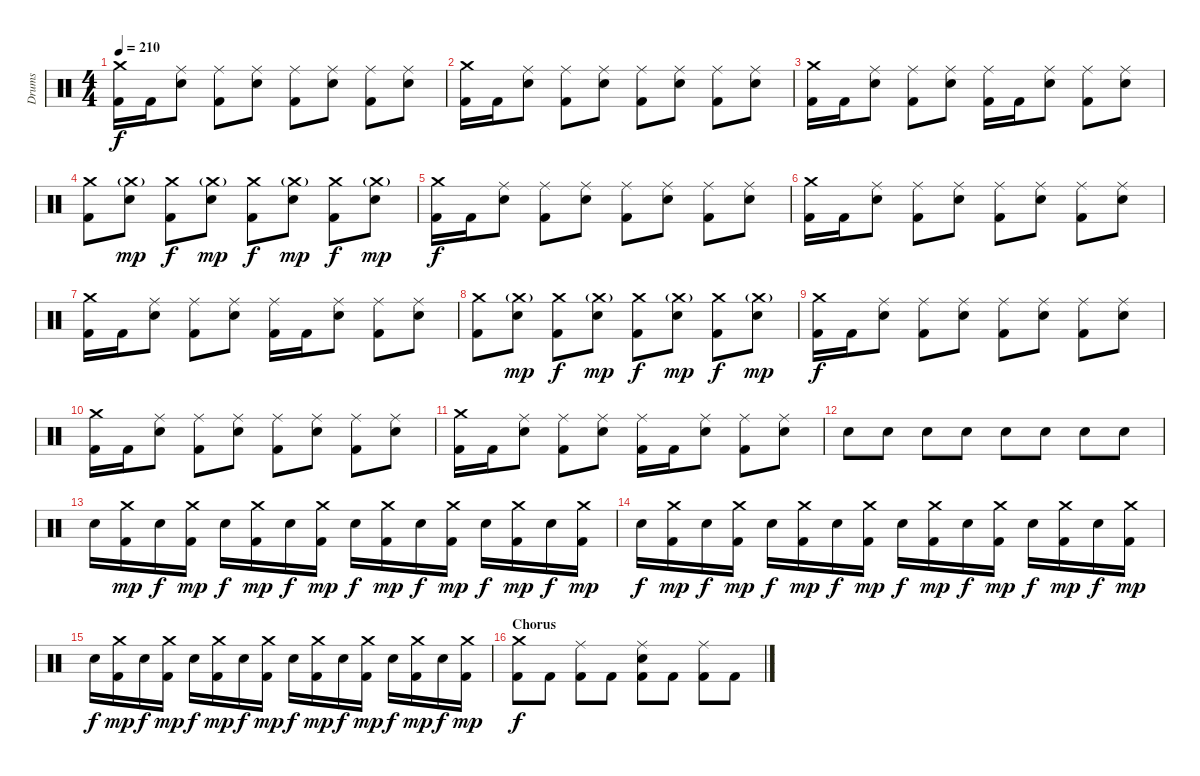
\track ("Drums" "Drums") {instrument percussion}
\staff {score}
\articulation defaults
\ts (4 4)
\tempo 210
\clef neutral
\ks c
("Kick (hit) 2" "Crash medium (hit)").16{dy f} "Kick (hit) 2".16 ("Snare (hit) 2" "Ride (middle)").8 ("Kick (hit) 2" "Ride (middle)").8 ("Snare (hit) 2" "Ride (middle)").8 ("Kick (hit) 2" "Ride (middle)").8 ("Snare (hit) 2" "Ride (middle)").8 ("Kick (hit) 2" "Ride (middle)").8 ("Snare (hit) 2" "Ride (middle)").8 |
("Kick (hit) 2" "Crash medium (hit)").16 "Kick (hit) 2".16 ("Snare (hit) 2" "Ride (middle)").8 ("Kick (hit) 2" "Ride (middle)").8 ("Snare (hit) 2" "Ride (middle)").8 ("Kick (hit) 2" "Ride (middle)").8 ("Snare (hit) 2" "Ride (middle)").8 ("Kick (hit) 2" "Ride (middle)").8 ("Snare (hit) 2" "Ride (middle)").8 |
("Kick (hit) 2" "Crash medium (hit)").16 "Kick (hit) 2".16 ("Snare (hit) 2" "Ride (middle)").8 ("Kick (hit) 2" "Ride (middle)").8 ("Snare (hit) 2" "Ride (middle)").8 ("Kick (hit) 2" "Ride (middle)").16 "Kick (hit) 2".16 ("Snare (hit) 2" "Ride (middle)").8 ("Kick (hit) 2" "Ride (middle)").8 ("Snare (hit) 2" "Ride (middle)").8 |
("Kick (hit) 2" "Crash medium (hit)").8 ("Snare (hit) 2" "Crash medium (hit)"{g}).8{dy mp} ("Kick (hit) 2" "Crash medium (hit)").8{dy f} ("Snare (hit) 2" "Crash medium (hit)"{g}).8{dy mp} ("Kick (hit) 2" "Crash medium (hit)").8{dy f} ("Snare (hit) 2" "Crash medium (hit)"{g}).8{dy mp} ("Kick (hit) 2" "Crash medium (hit)").8{dy f} ("Snare (hit) 2" "Crash medium (hit)"{g}).8{dy mp} |
("Kick (hit) 2" "Crash medium (hit)").16{dy f} "Kick (hit) 2".16 ("Snare (hit) 2" "Ride (middle)").8 ("Kick (hit) 2" "Ride (middle)").8 ("Snare (hit) 2" "Ride (middle)").8 ("Kick (hit) 2" "Ride (middle)").8 ("Snare (hit) 2" "Ride (middle)").8 ("Kick (hit) 2" "Ride (middle)").8 ("Snare (hit) 2" "Ride (middle)").8 |
("Kick (hit) 2" "Crash medium (hit)").16 "Kick (hit) 2".16 ("Snare (hit) 2" "Ride (middle)").8 ("Kick (hit) 2" "Ride (middle)").8 ("Snare (hit) 2" "Ride (middle)").8 ("Kick (hit) 2" "Ride (middle)").8 ("Snare (hit) 2" "Ride (middle)").8 ("Kick (hit) 2" "Ride (middle)").8 ("Snare (hit) 2" "Ride (middle)").8 |
("Kick (hit) 2" "Crash medium (hit)").16 "Kick (hit) 2".16 ("Snare (hit) 2" "Ride (middle)").8 ("Kick (hit) 2" "Ride (middle)").8 ("Snare (hit) 2" "Ride (middle)").8 ("Kick (hit) 2" "Ride (middle)").16 "Kick (hit) 2".16 ("Snare (hit) 2" "Ride (middle)").8 ("Kick (hit) 2" "Ride (middle)").8 ("Snare (hit) 2" "Ride (middle)").8 |
("Kick (hit) 2" "Crash medium (hit)").8 ("Snare (hit) 2" "Crash medium (hit)"{g}).8{dy mp} ("Kick (hit) 2" "Crash medium (hit)").8{dy f} ("Snare (hit) 2" "Crash medium (hit)"{g}).8{dy mp} ("Kick (hit) 2" "Crash medium (hit)").8{dy f} ("Snare (hit) 2" "Crash medium (hit)"{g}).8{dy mp} ("Kick (hit) 2" "Crash medium (hit)").8{dy f} ("Snare (hit) 2" "Crash medium (hit)"{g}).8{dy mp} |
("Kick (hit) 2" "Crash medium (hit)").16{dy f} "Kick (hit) 2".16 ("Snare (hit) 2" "Ride (middle)").8 ("Kick (hit) 2" "Ride (middle)").8 ("Snare (hit) 2" "Ride (middle)").8 ("Kick (hit) 2" "Ride (middle)").8 ("Snare (hit) 2" "Ride (middle)").8 ("Kick (hit) 2" "Ride (middle)").8 ("Snare (hit) 2" "Ride (middle)").8 |
("Kick (hit) 2" "Crash medium (hit)").16 "Kick (hit) 2".16 ("Snare (hit) 2" "Ride (middle)").8 ("Kick (hit) 2" "Ride (middle)").8 ("Snare (hit) 2" "Ride (middle)").8 ("Kick (hit) 2" "Ride (middle)").8 ("Snare (hit) 2" "Ride (middle)").8 ("Kick (hit) 2" "Ride (middle)").8 ("Snare (hit) 2" "Ride (middle)").8 |
("Kick (hit) 2" "Crash medium (hit)").16 "Kick (hit) 2".16 ("Snare (hit) 2" "Ride (middle)").8 ("Kick (hit) 2" "Ride (middle)").8 ("Snare (hit) 2" "Ride (middle)").8 ("Kick (hit) 2" "Ride (middle)").16 "Kick (hit) 2".16 ("Snare (hit) 2" "Ride (middle)").8 ("Kick (hit) 2" "Ride (middle)").8 ("Snare (hit) 2" "Ride (middle)").8 |
"Snare (hit) 2".8 "Snare (hit) 2".8 "Snare (hit) 2".8 "Snare (hit) 2".8 "Snare (hit) 2".8 "Snare (hit) 2".8 "Snare (hit) 2".8 "Snare (hit) 2".8 |
"Snare (hit) 2".16 ("Kick (hit) 2" "Crash medium (hit)").16{dy mp} "Snare (hit) 2".16{dy f} ("Kick (hit) 2" "Crash medium (hit)").16{dy mp} "Snare (hit) 2".16{dy f} ("Kick (hit) 2" "Crash medium (hit)").16{dy mp} "Snare (hit) 2".16{dy f} ("Kick (hit) 2" "Crash medium (hit)").16{dy mp} "Snare (hit) 2".16{dy f} ("Kick (hit) 2" "Crash medium (hit)").16{dy mp} "Snare (hit) 2".16{dy f} ("Kick (hit) 2" "Crash medium (hit)").16{dy mp} "Snare (hit) 2".16{dy f} ("Kick (hit) 2" "Crash medium (hit)").16{dy mp} "Snare (hit) 2".16{dy f} ("Kick (hit) 2" "Crash medium (hit)").16{dy mp} |
"Snare (hit) 2".16{dy f} ("Kick (hit) 2" "Crash medium (hit)").16{dy mp} "Snare (hit) 2".16{dy f} ("Kick (hit) 2" "Crash medium (hit)").16{dy mp} "Snare (hit) 2".16{dy f} ("Kick (hit) 2" "Crash medium (hit)").16{dy mp} "Snare (hit) 2".16{dy f} ("Kick (hit) 2" "Crash medium (hit)").16{dy mp} "Snare (hit) 2".16{dy f} ("Kick (hit) 2" "Crash medium (hit)").16{dy mp} "Snare (hit) 2".16{dy f} ("Kick (hit) 2" "Crash medium (hit)").16{dy mp} "Snare (hit) 2".16{dy f} ("Kick (hit) 2" "Crash medium (hit)").16{dy mp} "Snare (hit) 2".16{dy f} ("Kick (hit) 2" "Crash medium (hit)").16{dy mp} |
"Snare (hit) 2".16{dy f} ("Kick (hit) 2" "Crash medium (hit)").16{dy mp} "Snare (hit) 2".16{dy f} ("Kick (hit) 2" "Crash medium (hit)").16{dy mp} "Snare (hit) 2".16{dy f} ("Kick (hit) 2" "Crash medium (hit)").16{dy mp} "Snare (hit) 2".16{dy f} ("Kick (hit) 2" "Crash medium (hit)").16{dy mp} "Snare (hit) 2".16{dy f} ("Kick (hit) 2" "Crash medium (hit)").16{dy mp} "Snare (hit) 2".16{dy f} ("Kick (hit) 2" "Crash medium (hit)").16{dy mp} "Snare (hit) 2".16{dy f} ("Kick (hit) 2" "Crash medium (hit)").16{dy mp} "Snare (hit) 2".16{dy f} ("Kick (hit) 2" "Crash medium (hit)").16{dy mp} |
\section ("" "Chorus")
("Kick (hit) 2" "Crash medium (hit)").8{dy f} "Kick (hit) 2".8 ("Kick (hit) 2" "Ride (middle)").8 "Kick (hit) 2".8 ("Kick (hit) 2" "Snare (hit) 2" "Ride (middle)").8 "Kick (hit) 2".8 ("Kick (hit) 2" "Ride (middle)").8 "Kick (hit) 2".8
